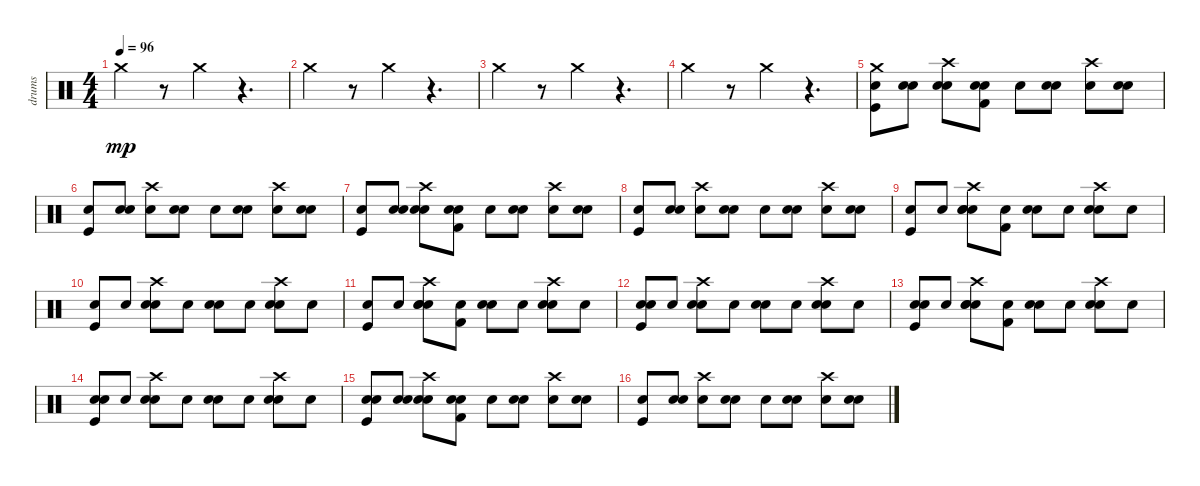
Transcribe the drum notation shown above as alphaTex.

\track ("drums" "drums") {instrument percussion}
\staff {score}
\articulation defaults
\ts (4 4)
\tempo 96
\clef neutral
\ks c "Crash medium (hit)".4{dy mp}
r.8 "Crash medium (hit)".4 r.4{d} |
"Crash medium (hit)".4 r.8 "Crash medium (hit)".4 r.4{d} |
"Crash medium (hit)".4 r.8 "Crash medium (hit)".4 r.4{d} |
"Crash medium (hit)".4 r.8 "Crash medium (hit)".4 r.4{d} |
("Snare (hit) 2" "Kick (hit)" "Crash medium (hit)").8 ("Snare (hit) 2" "Snare (hit) 2").8 ("Snare (hit) 2" "Electric Snare (hit)" "Crash high (hit)").8 ("Kick (hit) 2" "Snare (hit) 2" "Snare (hit) 2").8 "Snare (hit) 2".8 ("Snare (hit) 2" "Snare (hit) 2").8 ("Snare (hit) 2" "Crash high (hit)").8 ("Snare (hit) 2" "Snare (hit) 2").8 |
("Kick (hit)" "Snare (hit) 2").8 ("Snare (hit) 2" "Snare (hit) 2").8 ("Snare (hit) 2" "Crash high (hit)").8 ("Snare (hit) 2" "Snare (hit) 2").8 "Snare (hit) 2".8 ("Snare (hit) 2" "Snare (hit) 2").8 ("Snare (hit) 2" "Crash high (hit)").8 ("Snare (hit) 2" "Snare (hit) 2").8 |
("Snare (hit) 2" "Kick (hit)").8 ("Snare (hit) 2" "Snare (hit) 2").8 ("Snare (hit) 2" "Electric Snare (hit)" "Crash high (hit)").8 ("Kick (hit) 2" "Snare (hit) 2" "Snare (hit) 2").8 "Snare (hit) 2".8 ("Snare (hit) 2" "Snare (hit) 2").8 ("Snare (hit) 2" "Crash high (hit)").8 ("Snare (hit) 2" "Snare (hit) 2").8 |
("Kick (hit)" "Snare (hit) 2").8 ("Snare (hit) 2" "Snare (hit) 2").8 ("Crash high (hit)" "Snare (hit) 2").8 ("Snare (hit) 2" "Snare (hit) 2").8 "Snare (hit) 2".8 ("Snare (hit) 2" "Snare (hit) 2").8 ("Snare (hit) 2" "Crash high (hit)").8 ("Snare (hit) 2" "Snare (hit) 2").8 |
("Snare (hit) 2" "Kick (hit)").8 "Snare (hit) 2".8 ("Snare (hit) 2" "Snare (hit) 2" "Crash high (hit)" "Electric Snare (hit)").8 ("Kick (hit) 2" "Snare (hit) 2").8 ("Snare (hit) 2" "Snare (hit) 2").8 "Snare (hit) 2".8 ("Snare (hit) 2" "Snare (hit) 2" "Crash high (hit)").8 "Snare (hit) 2".8 |
("Kick (hit)" "Snare (hit) 2").8 "Snare (hit) 2".8 ("Snare (hit) 2" "Crash high (hit)" "Snare (hit) 2").8 "Snare (hit) 2".8 ("Snare (hit) 2" "Snare (hit) 2").8 "Snare (hit) 2".8 ("Snare (hit) 2" "Snare (hit) 2" "Crash high (hit)").8 "Snare (hit) 2".8 |
("Snare (hit) 2" "Kick (hit)").8 "Snare (hit) 2".8 ("Snare (hit) 2" "Snare (hit) 2" "Electric Snare (hit)" "Crash high (hit)").8 ("Snare (hit) 2" "Kick (hit) 2").8 ("Snare (hit) 2" "Snare (hit) 2").8 "Snare (hit) 2".8 ("Snare (hit) 2" "Snare (hit) 2" "Crash high (hit)").8 "Snare (hit) 2".8 |
("Snare (hit) 2" "Snare (hit) 2" "Kick (hit)").8 "Snare (hit) 2".8 ("Snare (hit) 2" "Snare (hit) 2" "Crash high (hit)").8 "Snare (hit) 2".8 ("Snare (hit) 2" "Snare (hit) 2").8 "Snare (hit) 2".8 ("Snare (hit) 2" "Snare (hit) 2" "Crash high (hit)").8 "Snare (hit) 2".8 |
("Snare (hit) 2" "Snare (hit) 2" "Kick (hit)").8 "Snare (hit) 2".8 ("Snare (hit) 2" "Crash high (hit)" "Electric Snare (hit)" "Snare (hit) 2").8 ("Kick (hit) 2" "Snare (hit) 2").8 ("Snare (hit) 2" "Snare (hit) 2").8 "Snare (hit) 2".8 ("Snare (hit) 2" "Crash high (hit)" "Snare (hit) 2").8 "Snare (hit) 2".8 |
("Snare (hit) 2" "Kick (hit)" "Snare (hit) 2").8 "Snare (hit) 2".8 ("Snare (hit) 2" "Crash high (hit)" "Snare (hit) 2").8 "Snare (hit) 2".8 ("Snare (hit) 2" "Snare (hit) 2").8 "Snare (hit) 2".8 ("Snare (hit) 2" "Snare (hit) 2" "Crash high (hit)").8 "Snare (hit) 2".8 |
("Kick (hit)" "Snare (hit) 2" "Snare (hit) 2").8 ("Snare (hit) 2" "Snare (hit) 2").8 ("Electric Snare (hit)" "Crash high (hit)" "Snare (hit) 2").8 ("Kick (hit) 2" "Snare (hit) 2" "Snare (hit) 2").8 "Snare (hit) 2".8 ("Snare (hit) 2" "Snare (hit) 2").8 ("Snare (hit) 2" "Crash high (hit)").8 ("Snare (hit) 2" "Snare (hit) 2").8 |
("Kick (hit)" "Snare (hit) 2").8 ("Snare (hit) 2" "Snare (hit) 2").8 ("Snare (hit) 2" "Crash high (hit)").8 ("Snare (hit) 2" "Snare (hit) 2").8 "Snare (hit) 2".8 ("Snare (hit) 2" "Snare (hit) 2").8 ("Snare (hit) 2" "Crash high (hit)").8 ("Snare (hit) 2" "Snare (hit) 2").8
